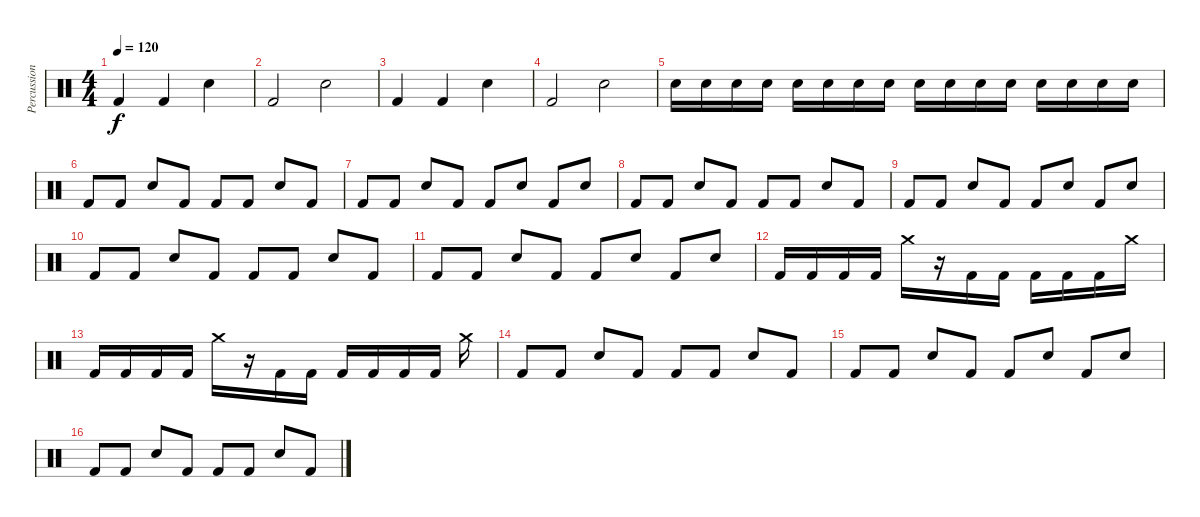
\track ("Percussion" "Percussion") {solo instrument percussion}
\staff {score}
\articulation defaults
\ts (4 4)
\tempo 120
\clef neutral
\ks c "Kick (hit) 2".4{dy f} "Kick (hit) 2".4 "Snare (hit) 2".4
|
"Kick (hit) 2".2 "Snare (hit) 2".2 |
"Kick (hit) 2".4 "Kick (hit) 2".4 "Snare (hit) 2".4 |
"Kick (hit) 2".2 "Snare (hit) 2".2 |
"Snare (hit) 2".16 "Snare (hit) 2".16 "Snare (hit) 2".16 "Snare (hit) 2".16 "Snare (hit) 2".16 "Snare (hit) 2".16 "Snare (hit) 2".16 "Snare (hit) 2".16 "Snare (hit) 2".16 "Snare (hit) 2".16 "Snare (hit) 2".16 "Snare (hit) 2".16 "Snare (hit) 2".16 "Snare (hit) 2".16 "Snare (hit) 2".16 "Snare (hit) 2".16 |
"Kick (hit) 2".8 "Kick (hit) 2".8 "Snare (hit) 2".8 "Kick (hit) 2".8 "Kick (hit) 2".8 "Kick (hit) 2".8 "Snare (hit) 2".8 "Kick (hit) 2".8 |
"Kick (hit) 2".8 "Kick (hit) 2".8 "Snare (hit) 2".8 "Kick (hit) 2".8 "Kick (hit) 2".8 "Snare (hit) 2".8 "Kick (hit) 2".8 "Snare (hit) 2".8 |
"Kick (hit) 2".8 "Kick (hit) 2".8 "Snare (hit) 2".8 "Kick (hit) 2".8 "Kick (hit) 2".8 "Kick (hit) 2".8 "Snare (hit) 2".8 "Kick (hit) 2".8 |
"Kick (hit) 2".8 "Kick (hit) 2".8 "Snare (hit) 2".8 "Kick (hit) 2".8 "Kick (hit) 2".8 "Snare (hit) 2".8 "Kick (hit) 2".8 "Snare (hit) 2".8 |
"Kick (hit) 2".8 "Kick (hit) 2".8 "Snare (hit) 2".8 "Kick (hit) 2".8 "Kick (hit) 2".8 "Kick (hit) 2".8 "Snare (hit) 2".8 "Kick (hit) 2".8 |
"Kick (hit) 2".8 "Kick (hit) 2".8 "Snare (hit) 2".8 "Kick (hit) 2".8 "Kick (hit) 2".8 "Snare (hit) 2".8 "Kick (hit) 2".8 "Snare (hit) 2".8 |
"Kick (hit) 2".16 "Kick (hit) 2".16 "Kick (hit) 2".16 "Kick (hit) 2".16 "Crash medium (hit)".16 r.16 "Kick (hit) 2".16 "Kick (hit) 2".16 "Kick (hit) 2".16 "Kick (hit) 2".16 "Kick (hit) 2".16 "Crash medium (hit)".16 |
"Kick (hit) 2".16 "Kick (hit) 2".16 "Kick (hit) 2".16 "Kick (hit) 2".16 "Crash medium (hit)".16 r.16 "Kick (hit) 2".16 "Kick (hit) 2".16 "Kick (hit) 2".16 "Kick (hit) 2".16 "Kick (hit) 2".16 "Kick (hit) 2".16 "Crash medium (hit)".16 |
"Kick (hit) 2".8 "Kick (hit) 2".8 "Snare (hit) 2".8 "Kick (hit) 2".8 "Kick (hit) 2".8 "Kick (hit) 2".8 "Snare (hit) 2".8 "Kick (hit) 2".8 |
"Kick (hit) 2".8 "Kick (hit) 2".8 "Snare (hit) 2".8 "Kick (hit) 2".8 "Kick (hit) 2".8 "Snare (hit) 2".8 "Kick (hit) 2".8 "Snare (hit) 2".8 |
"Kick (hit) 2".8 "Kick (hit) 2".8 "Snare (hit) 2".8 "Kick (hit) 2".8 "Kick (hit) 2".8 "Kick (hit) 2".8 "Snare (hit) 2".8 "Kick (hit) 2".8
